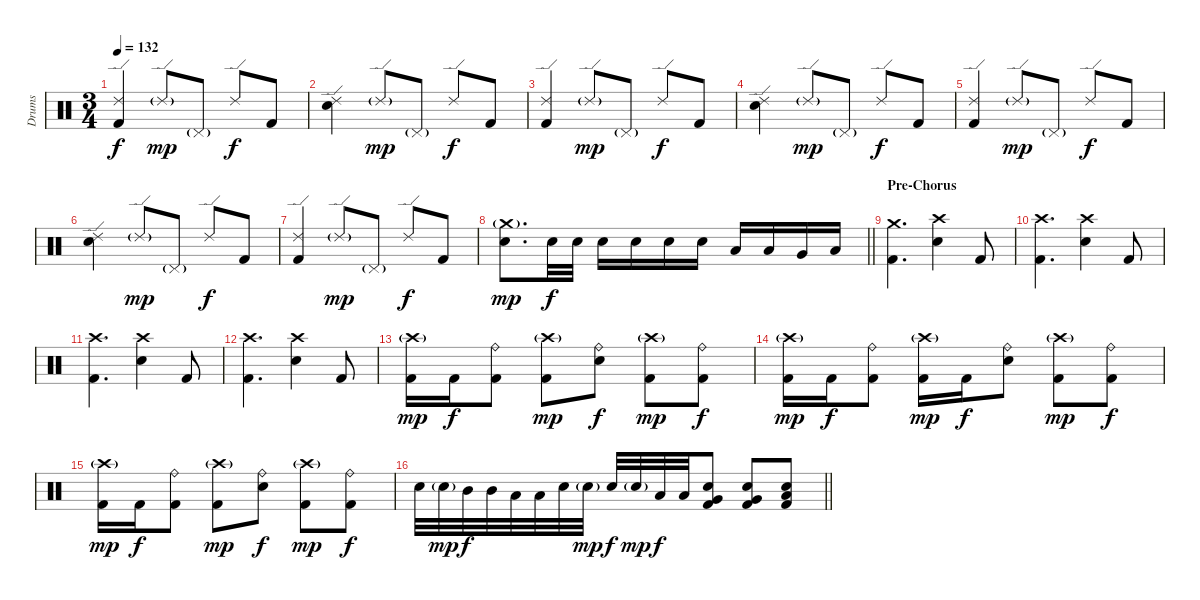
\track ("Drums" "Drums") {instrument percussion}
\staff {score}
\articulation defaults
\ts (3 4)
\tempo 132
\clef neutral
\ks c
("Ride (edge) 2" "Kick (hit) 2").4{dy f} "Ride (edge) 2"{g}.8{dy mp} "Pedal Hi-Hat (hit)"{g}.8 "Ride (edge) 2".8{dy f} "Kick (hit) 2".8 |
("Ride (edge) 2" "Snare (hit) 2").4 "Ride (edge) 2"{g}.8{dy mp} "Pedal Hi-Hat (hit)"{g}.8 "Ride (edge) 2".8{dy f} "Kick (hit) 2".8 |
("Ride (edge) 2" "Kick (hit) 2").4 "Ride (edge) 2"{g}.8{dy mp} "Pedal Hi-Hat (hit)"{g}.8 "Ride (edge) 2".8{dy f} "Kick (hit) 2".8 |
("Ride (edge) 2" "Snare (hit) 2").4 "Ride (edge) 2"{g}.8{dy mp} "Pedal Hi-Hat (hit)"{g}.8 "Ride (edge) 2".8{dy f} "Kick (hit) 2".8 |
("Ride (edge) 2" "Kick (hit) 2").4 "Ride (edge) 2"{g}.8{dy mp} "Pedal Hi-Hat (hit)"{g}.8 "Ride (edge) 2".8{dy f} "Kick (hit) 2".8 |
("Ride (edge) 2" "Snare (hit) 2").4 "Ride (edge) 2"{g}.8{dy mp} "Pedal Hi-Hat (hit)"{g}.8 "Ride (edge) 2".8{dy f} "Kick (hit) 2".8 |
("Ride (edge) 2" "Kick (hit) 2").4 "Ride (edge) 2"{g}.8{dy mp} "Pedal Hi-Hat (hit)"{g}.8 "Ride (edge) 2".8{dy f} "Kick (hit) 2".8 |
\barLineRight lightlight
("Crash medium (hit)"{g} "Snare (hit) 2").8{d dy mp volume 12} "Snare (hit) 2".32{dy f} "Snare (hit) 2".32 "Snare (hit) 2".16 "Snare (hit) 2".16 "Snare (hit) 2".16 "Snare (hit) 2".16 "Low Tom (hit)".16 "Low Tom (hit)".16 "Very Low Tom (hit)".16 "Low Floor Tom (hit)".16 |
\section ("" "Pre-Chorus")
("Crash medium (hit)" "Kick (hit) 2").4{d} ("Crash high (hit)" "Snare (hit) 2").4 "Kick (hit) 2".8 |
("Crash high (hit)" "Kick (hit) 2").4{d} ("Crash high (hit)" "Snare (hit) 2").4 "Kick (hit) 2".8 |
("Crash high (hit)" "Kick (hit) 2").4{d} ("Crash high (hit)" "Snare (hit) 2").4 "Kick (hit) 2".8 |
("Crash high (hit)" "Kick (hit) 2").4{d} ("Crash high (hit)" "Snare (hit) 2").4 "Kick (hit) 2".8 |
("Crash high (hit)"{g} "Kick (hit) 2").16{dy mp} "Kick (hit) 2".16{dy f} ("Ride (bell)" "Kick (hit) 2").8 ("Crash high (hit)"{g} "Kick (hit) 2").8{dy mp} ("Ride (bell)" "Snare (hit) 2").8{dy f} ("Crash high (hit)"{g} "Kick (hit) 2").8{dy mp} ("Ride (bell)" "Kick (hit) 2").8{dy f} |
("Crash high (hit)"{g} "Kick (hit) 2").16{dy mp} "Kick (hit) 2".16{dy f} ("Ride (bell)" "Kick (hit) 2").8 ("Crash high (hit)"{g} "Kick (hit) 2").16{dy mp} "Kick (hit) 2".16{dy f} ("Ride (bell)" "Snare (hit) 2").8 ("Crash high (hit)"{g} "Kick (hit) 2").8{dy mp} ("Ride (bell)" "Kick (hit) 2").8{dy f} |
("Crash high (hit)"{g} "Kick (hit) 2").16{dy mp} "Kick (hit) 2".16{dy f} ("Ride (bell)" "Kick (hit) 2").8 ("Crash high (hit)"{g} "Kick (hit) 2").8{dy mp} ("Ride (bell)" "Snare (hit) 2").8{dy f} ("Crash high (hit)"{g} "Kick (hit) 2").8{dy mp} ("Ride (bell)" "Kick (hit) 2").8{dy f} |
\barLineRight lightlight "Snare (hit) 2".32 "Snare (hit) 2"{g}.32{dy mp} "Mid Tom (hit)".32{dy f} "Mid Tom (hit)".32 "Low Tom (hit)".32 "Low Tom (hit)".32 "Snare (hit) 2".32 "Snare (hit) 2"{g}.32{dy mp} "Snare (hit) 2".32{dy f} "Snare (hit) 2"{g}.32{dy mp} "Low Tom (hit)".32{dy f} "Low Tom (hit)".32
("Very Low Tom (hit)" "Snare (hit) 2" "Kick (hit) 2").8 ("Very Low Tom (hit)" "Snare (hit) 2" "Kick (hit) 2").8 ("Low Floor Tom (hit)" "Snare (hit) 2" "Kick (hit) 2").8
